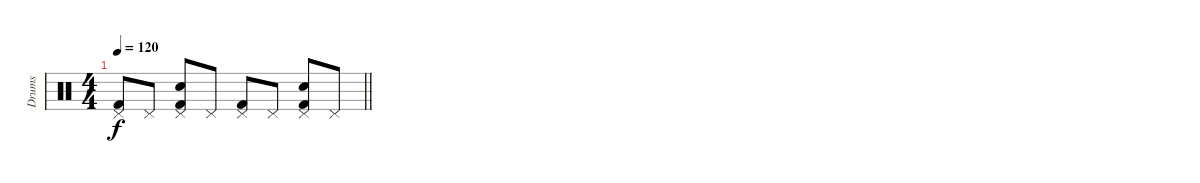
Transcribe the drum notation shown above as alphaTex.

\track ("Drums" "Drums") {instrument percussion}
\staff
\articulation defaults
\ts (4 4)
\tempo 120
\clef neutral
\barLineRight lightlight
\ks c
("Pedal Hi-Hat (hit)" "Kick (hit) 2").8{dy f} "Pedal Hi-Hat (hit)".8 ("Pedal Hi-Hat (hit)" "Electric Snare (hit)" "Kick (hit) 2").8 "Pedal Hi-Hat (hit)".8 ("Pedal Hi-Hat (hit)" "Kick (hit) 2").8 "Pedal Hi-Hat (hit)".8 ("Pedal Hi-Hat (hit)" "Electric Snare (hit)" "Kick (hit) 2").8 "Pedal Hi-Hat (hit)".8
